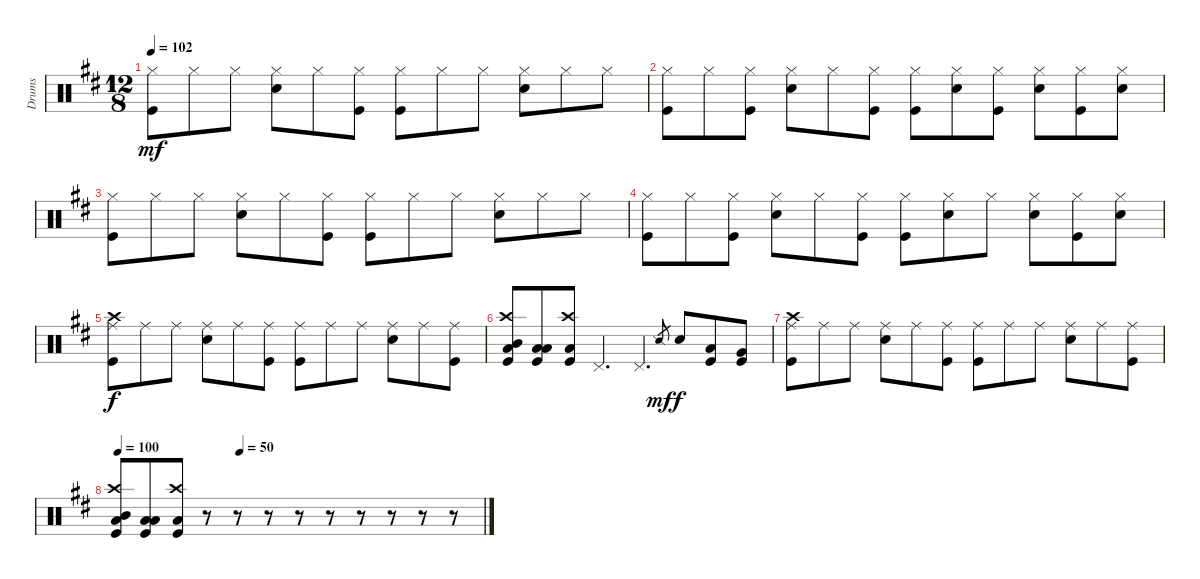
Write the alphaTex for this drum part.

\track ("Drums" "Drums") {instrument percussion}
\staff {score}
\articulation defaults
\ts (12 8)
\tempo 102
\clef neutral
\ks d
("Hi-Hat (closed)" "Kick (hit)").8{dy mf} "Hi-Hat (closed)".8 "Hi-Hat (closed)".8 ("Hi-Hat (closed)" "Snare (hit) 2").8 "Hi-Hat (closed)".8 ("Hi-Hat (closed)" "Kick (hit)").8 ("Hi-Hat (closed)" "Kick (hit)").8 "Hi-Hat (closed)".8 "Hi-Hat (closed)".8 ("Hi-Hat (closed)" "Snare (hit) 2").8 "Hi-Hat (closed)".8 "Hi-Hat (closed)".8 |
("Hi-Hat (closed)" "Kick (hit)").8 "Hi-Hat (closed)".8 ("Hi-Hat (closed)" "Kick (hit)").8 ("Hi-Hat (closed)" "Snare (hit) 2").8 "Hi-Hat (closed)".8 ("Hi-Hat (closed)" "Kick (hit)").8 ("Hi-Hat (closed)" "Kick (hit)").8 ("Hi-Hat (closed)" "Snare (hit) 2").8 ("Hi-Hat (closed)" "Kick (hit)").8 ("Hi-Hat (closed)" "Snare (hit) 2").8 ("Hi-Hat (closed)" "Kick (hit)").8 ("Hi-Hat (closed)" "Snare (hit) 2").8 |
("Hi-Hat (closed)" "Kick (hit)").8 "Hi-Hat (closed)".8 "Hi-Hat (closed)".8 ("Hi-Hat (closed)" "Snare (hit) 2").8 "Hi-Hat (closed)".8 ("Hi-Hat (closed)" "Kick (hit)").8 ("Hi-Hat (closed)" "Kick (hit)").8 "Hi-Hat (closed)".8 "Hi-Hat (closed)".8 ("Hi-Hat (closed)" "Snare (hit) 2").8 "Hi-Hat (closed)".8 "Hi-Hat (closed)".8 |
("Hi-Hat (closed)" "Kick (hit)").8 "Hi-Hat (closed)".8 ("Hi-Hat (closed)" "Kick (hit)").8 ("Hi-Hat (closed)" "Snare (hit) 2").8 "Hi-Hat (closed)".8 ("Hi-Hat (closed)" "Kick (hit)").8 ("Hi-Hat (closed)" "Kick (hit)").8 ("Hi-Hat (closed)" "Snare (hit) 2").8 "Hi-Hat (closed)".8 ("Hi-Hat (closed)" "Snare (hit) 2").8 ("Hi-Hat (closed)" "Kick (hit)").8 ("Hi-Hat (closed)" "Snare (hit) 2").8 |
("Ride (middle)" "Crash high (hit)" "Kick (hit)").8{dy f} "Ride (middle)".8 "Ride (middle)".8 ("Ride (middle)" "Snare (hit) 2").8 "Ride (middle)".8 ("Ride (middle)" "Kick (hit)").8 ("Ride (middle)" "Kick (hit)").8 "Ride (middle)".8 "Ride (middle)".8 ("Ride (middle)" "Snare (hit) 2").8 "Ride (middle)".8 ("Ride (middle)" "Kick (hit)").8 |
("Crash high (hit)" "Mid Tom (hit)" "Low Floor Tom (hit)" "Kick (hit)").8 ("Low Tom (hit)" "Low Floor Tom (hit)" "Kick (hit)").8 ("Crash high (hit)" "Low Floor Tom (hit)" "Kick (hit)").8 "Pedal Hi-Hat (hit)".4{d} "Pedal Hi-Hat (hit)".4{d} "Snare (side stick) 2".8{gr dy mf} "Snare (hit) 2".8{dy f} ("Low Tom (hit)" "Kick (hit)").8 ("Very Low Tom (hit)" "Kick (hit)").8 |
("Ride (middle)" "Crash high (hit)" "Kick (hit)").8 "Ride (middle)".8 "Ride (middle)".8 ("Ride (middle)" "Snare (hit) 2").8 "Ride (middle)".8 ("Ride (middle)" "Kick (hit)").8 ("Ride (middle)" "Kick (hit)").8 "Ride (middle)".8 "Ride (middle)".8 ("Ride (middle)" "Snare (hit) 2").8 "Ride (middle)".8 ("Ride (middle)" "Kick (hit)").8 |
\tempo 100
\tempo (50 0.3333333333333333)
("Crash high (hit)" "Mid Tom (hit)" "Low Floor Tom (hit)" "Kick (hit)").8 ("Low Tom (hit)" "Low Floor Tom (hit)" "Kick (hit)").8 ("Crash high (hit)" "Low Floor Tom (hit)" "Kick (hit)").8 r.8 r.8 r.8 r.8 r.8 r.8 r.8 r.8 r.8
